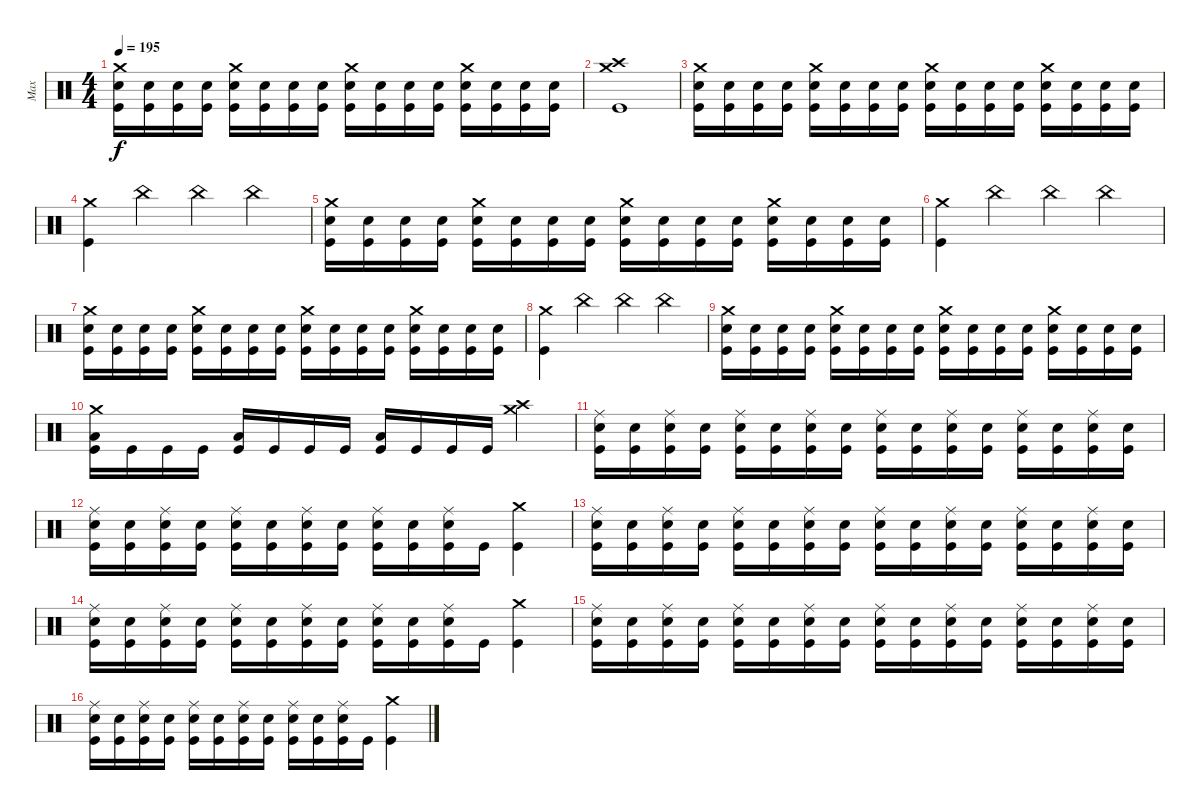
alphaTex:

\track ("Max" "Max") {instrument percussion}
\staff {score}
\articulation defaults
\ts (4 4)
\tempo 195
\clef neutral
\ks c
("Crash medium (hit)" "Electric Snare (hit)" "Kick (hit)").16{dy f} ("Electric Snare (hit)" "Kick (hit)").16 ("Electric Snare (hit)" "Kick (hit)").16 ("Electric Snare (hit)" "Kick (hit)").16 ("Crash medium (hit)" "Electric Snare (hit)" "Kick (hit)").16 ("Electric Snare (hit)" "Kick (hit)").16 ("Electric Snare (hit)" "Kick (hit)").16 ("Electric Snare (hit)" "Kick (hit)").16 ("Crash medium (hit)" "Electric Snare (hit)" "Kick (hit)").16 ("Electric Snare (hit)" "Kick (hit)").16 ("Electric Snare (hit)" "Kick (hit)").16 ("Electric Snare (hit)" "Kick (hit)").16 ("Crash medium (hit)" "Electric Snare (hit)" "Kick (hit)").16 ("Electric Snare (hit)" "Kick (hit)").16 ("Electric Snare (hit)" "Kick (hit)").16 ("Electric Snare (hit)" "Kick (hit)").16 |
("Crash medium (hit)" "Crash high (hit)" "Kick (hit)").1 |
("Crash medium (hit)" "Electric Snare (hit)" "Kick (hit)").16 ("Electric Snare (hit)" "Kick (hit)").16 ("Electric Snare (hit)" "Kick (hit)").16 ("Electric Snare (hit)" "Kick (hit)").16 ("Crash medium (hit)" "Electric Snare (hit)" "Kick (hit)").16 ("Electric Snare (hit)" "Kick (hit)").16 ("Electric Snare (hit)" "Kick (hit)").16 ("Electric Snare (hit)" "Kick (hit)").16 ("Crash medium (hit)" "Electric Snare (hit)" "Kick (hit)").16 ("Electric Snare (hit)" "Kick (hit)").16 ("Electric Snare (hit)" "Kick (hit)").16 ("Electric Snare (hit)" "Kick (hit)").16 ("Crash medium (hit)" "Electric Snare (hit)" "Kick (hit)").16 ("Electric Snare (hit)" "Kick (hit)").16 ("Electric Snare (hit)" "Kick (hit)").16 ("Electric Snare (hit)" "Kick (hit)").16 |
("Crash medium (hit)" "Kick (hit)").4 "China (hit)".4 "China (hit)".4 "China (hit)".4 |
("Crash medium (hit)" "Electric Snare (hit)" "Kick (hit)").16 ("Electric Snare (hit)" "Kick (hit)").16 ("Electric Snare (hit)" "Kick (hit)").16 ("Electric Snare (hit)" "Kick (hit)").16 ("Crash medium (hit)" "Electric Snare (hit)" "Kick (hit)").16 ("Electric Snare (hit)" "Kick (hit)").16 ("Electric Snare (hit)" "Kick (hit)").16 ("Electric Snare (hit)" "Kick (hit)").16 ("Crash medium (hit)" "Electric Snare (hit)" "Kick (hit)").16 ("Electric Snare (hit)" "Kick (hit)").16 ("Electric Snare (hit)" "Kick (hit)").16 ("Electric Snare (hit)" "Kick (hit)").16 ("Crash medium (hit)" "Electric Snare (hit)" "Kick (hit)").16 ("Electric Snare (hit)" "Kick (hit)").16 ("Electric Snare (hit)" "Kick (hit)").16 ("Electric Snare (hit)" "Kick (hit)").16 |
("Crash medium (hit)" "Kick (hit)").4 "China (hit)".4 "China (hit)".4 "China (hit)".4 |
("Crash medium (hit)" "Electric Snare (hit)" "Kick (hit)").16 ("Electric Snare (hit)" "Kick (hit)").16 ("Electric Snare (hit)" "Kick (hit)").16 ("Electric Snare (hit)" "Kick (hit)").16 ("Crash medium (hit)" "Electric Snare (hit)" "Kick (hit)").16 ("Electric Snare (hit)" "Kick (hit)").16 ("Electric Snare (hit)" "Kick (hit)").16 ("Electric Snare (hit)" "Kick (hit)").16 ("Crash medium (hit)" "Electric Snare (hit)" "Kick (hit)").16 ("Electric Snare (hit)" "Kick (hit)").16 ("Electric Snare (hit)" "Kick (hit)").16 ("Electric Snare (hit)" "Kick (hit)").16 ("Crash medium (hit)" "Electric Snare (hit)" "Kick (hit)").16 ("Electric Snare (hit)" "Kick (hit)").16 ("Electric Snare (hit)" "Kick (hit)").16 ("Electric Snare (hit)" "Kick (hit)").16 |
("Crash medium (hit)" "Kick (hit)").4 "China (hit)".4 "China (hit)".4 "China (hit)".4 |
("Crash medium (hit)" "Electric Snare (hit)" "Kick (hit)").16 ("Electric Snare (hit)" "Kick (hit)").16 ("Electric Snare (hit)" "Kick (hit)").16 ("Electric Snare (hit)" "Kick (hit)").16 ("Crash medium (hit)" "Electric Snare (hit)" "Kick (hit)").16 ("Electric Snare (hit)" "Kick (hit)").16 ("Electric Snare (hit)" "Kick (hit)").16 ("Electric Snare (hit)" "Kick (hit)").16 ("Crash medium (hit)" "Electric Snare (hit)" "Kick (hit)").16 ("Electric Snare (hit)" "Kick (hit)").16 ("Electric Snare (hit)" "Kick (hit)").16 ("Electric Snare (hit)" "Kick (hit)").16 ("Crash medium (hit)" "Electric Snare (hit)" "Kick (hit)").16 ("Electric Snare (hit)" "Kick (hit)").16 ("Electric Snare (hit)" "Kick (hit)").16 ("Electric Snare (hit)" "Kick (hit)").16 |
("Crash medium (hit)" "Low Tom (hit)" "Kick (hit)").16 "Kick (hit)".16 "Kick (hit)".16 "Kick (hit)".16 ("Low Tom (hit)" "Kick (hit)").16 "Kick (hit)".16 "Kick (hit)".16 "Kick (hit)".16 ("Low Tom (hit)" "Kick (hit)").16 "Kick (hit)".16 "Kick (hit)".16 "Kick (hit)".16 ("Crash medium (hit)" "Crash high (hit)").4 |
("Ride (middle)" "Electric Snare (hit)" "Kick (hit)").16 ("Electric Snare (hit)" "Kick (hit)").16 ("Ride (middle)" "Electric Snare (hit)" "Kick (hit)").16 ("Electric Snare (hit)" "Kick (hit)").16 ("Ride (middle)" "Electric Snare (hit)" "Kick (hit)").16 ("Electric Snare (hit)" "Kick (hit)").16 ("Ride (middle)" "Electric Snare (hit)" "Kick (hit)").16 ("Electric Snare (hit)" "Kick (hit)").16 ("Ride (middle)" "Electric Snare (hit)" "Kick (hit)").16 ("Electric Snare (hit)" "Kick (hit)").16 ("Ride (middle)" "Electric Snare (hit)" "Kick (hit)").16 ("Electric Snare (hit)" "Kick (hit)").16 ("Ride (middle)" "Electric Snare (hit)" "Kick (hit)").16 ("Electric Snare (hit)" "Kick (hit)").16 ("Ride (middle)" "Electric Snare (hit)" "Kick (hit)").16 ("Electric Snare (hit)" "Kick (hit)").16 |
("Ride (middle)" "Electric Snare (hit)" "Kick (hit)").16 ("Electric Snare (hit)" "Kick (hit)").16 ("Ride (middle)" "Electric Snare (hit)" "Kick (hit)").16 ("Electric Snare (hit)" "Kick (hit)").16 ("Ride (middle)" "Electric Snare (hit)" "Kick (hit)").16 ("Electric Snare (hit)" "Kick (hit)").16 ("Ride (middle)" "Electric Snare (hit)" "Kick (hit)").16 ("Electric Snare (hit)" "Kick (hit)").16 ("Ride (middle)" "Electric Snare (hit)" "Kick (hit)").16 ("Electric Snare (hit)" "Kick (hit)").16 ("Ride (middle)" "Electric Snare (hit)" "Kick (hit)").16 "Kick (hit)".16 ("Crash medium (hit)" "Kick (hit)").4 |
("Ride (middle)" "Electric Snare (hit)" "Kick (hit)").16 ("Electric Snare (hit)" "Kick (hit)").16 ("Ride (middle)" "Electric Snare (hit)" "Kick (hit)").16 ("Electric Snare (hit)" "Kick (hit)").16 ("Ride (middle)" "Electric Snare (hit)" "Kick (hit)").16 ("Electric Snare (hit)" "Kick (hit)").16 ("Ride (middle)" "Electric Snare (hit)" "Kick (hit)").16 ("Electric Snare (hit)" "Kick (hit)").16 ("Ride (middle)" "Electric Snare (hit)" "Kick (hit)").16 ("Electric Snare (hit)" "Kick (hit)").16 ("Ride (middle)" "Electric Snare (hit)" "Kick (hit)").16 ("Electric Snare (hit)" "Kick (hit)").16 ("Ride (middle)" "Electric Snare (hit)" "Kick (hit)").16 ("Electric Snare (hit)" "Kick (hit)").16 ("Ride (middle)" "Electric Snare (hit)" "Kick (hit)").16 ("Electric Snare (hit)" "Kick (hit)").16 |
("Ride (middle)" "Electric Snare (hit)" "Kick (hit)").16 ("Electric Snare (hit)" "Kick (hit)").16 ("Ride (middle)" "Electric Snare (hit)" "Kick (hit)").16 ("Electric Snare (hit)" "Kick (hit)").16 ("Ride (middle)" "Electric Snare (hit)" "Kick (hit)").16 ("Electric Snare (hit)" "Kick (hit)").16 ("Ride (middle)" "Electric Snare (hit)" "Kick (hit)").16 ("Electric Snare (hit)" "Kick (hit)").16 ("Ride (middle)" "Electric Snare (hit)" "Kick (hit)").16 ("Electric Snare (hit)" "Kick (hit)").16 ("Ride (middle)" "Electric Snare (hit)" "Kick (hit)").16 "Kick (hit)".16 ("Crash medium (hit)" "Kick (hit)").4 |
("Ride (middle)" "Electric Snare (hit)" "Kick (hit)").16 ("Electric Snare (hit)" "Kick (hit)").16 ("Ride (middle)" "Electric Snare (hit)" "Kick (hit)").16 ("Electric Snare (hit)" "Kick (hit)").16 ("Ride (middle)" "Electric Snare (hit)" "Kick (hit)").16 ("Electric Snare (hit)" "Kick (hit)").16 ("Ride (middle)" "Electric Snare (hit)" "Kick (hit)").16 ("Electric Snare (hit)" "Kick (hit)").16 ("Ride (middle)" "Electric Snare (hit)" "Kick (hit)").16 ("Electric Snare (hit)" "Kick (hit)").16 ("Ride (middle)" "Electric Snare (hit)" "Kick (hit)").16 ("Electric Snare (hit)" "Kick (hit)").16 ("Ride (middle)" "Electric Snare (hit)" "Kick (hit)").16 ("Electric Snare (hit)" "Kick (hit)").16 ("Ride (middle)" "Electric Snare (hit)" "Kick (hit)").16 ("Electric Snare (hit)" "Kick (hit)").16 |
("Ride (middle)" "Electric Snare (hit)" "Kick (hit)").16 ("Electric Snare (hit)" "Kick (hit)").16 ("Ride (middle)" "Electric Snare (hit)" "Kick (hit)").16 ("Electric Snare (hit)" "Kick (hit)").16 ("Ride (middle)" "Electric Snare (hit)" "Kick (hit)").16 ("Electric Snare (hit)" "Kick (hit)").16 ("Ride (middle)" "Electric Snare (hit)" "Kick (hit)").16 ("Electric Snare (hit)" "Kick (hit)").16 ("Ride (middle)" "Electric Snare (hit)" "Kick (hit)").16 ("Electric Snare (hit)" "Kick (hit)").16 ("Ride (middle)" "Electric Snare (hit)" "Kick (hit)").16 "Kick (hit)".16 ("Crash medium (hit)" "Kick (hit)").4
